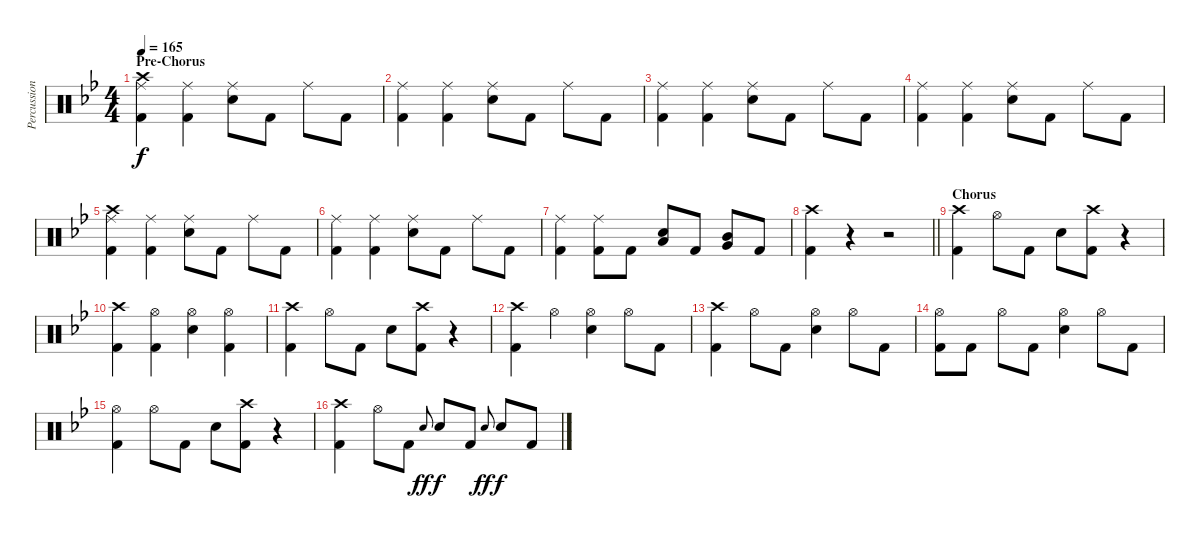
\track ("Percussion - Aaron" "Percussion") {instrument percussion}
\staff {score}
\articulation defaults
\ts (4 4)
\section ("" "Pre-Chorus")
\tempo 165
\clef neutral
\ks gminor
("Crash high (hit)" "Ride (middle)" "Kick (hit) 2").4{dy f} ("Ride (middle)" "Kick (hit) 2").4 ("Ride (middle)" "Electric Snare (hit)").8 "Kick (hit) 2".8 "Ride (middle)".8 "Kick (hit) 2".8 |
("Ride (middle)" "Kick (hit) 2").4 ("Ride (middle)" "Kick (hit) 2").4 ("Ride (middle)" "Electric Snare (hit)").8 "Kick (hit) 2".8 "Ride (middle)".8 "Kick (hit) 2".8 |
("Ride (middle)" "Kick (hit) 2").4 ("Ride (middle)" "Kick (hit) 2").4 ("Ride (middle)" "Electric Snare (hit)").8 "Kick (hit) 2".8 "Ride (middle)".8 "Kick (hit) 2".8 |
("Ride (middle)" "Kick (hit) 2").4 ("Ride (middle)" "Kick (hit) 2").4 ("Ride (middle)" "Electric Snare (hit)").8 "Kick (hit) 2".8 "Ride (middle)".8 "Kick (hit) 2".8 |
("Crash high (hit)" "Ride (middle)" "Kick (hit) 2").4 ("Ride (middle)" "Kick (hit) 2").4 ("Ride (middle)" "Electric Snare (hit)").8 "Kick (hit) 2".8 "Ride (middle)".8 "Kick (hit) 2".8 |
("Ride (middle)" "Kick (hit) 2").4 ("Ride (middle)" "Kick (hit) 2").4 ("Ride (middle)" "Electric Snare (hit)").8 "Kick (hit) 2".8 "Ride (middle)".8 "Kick (hit) 2".8 |
("Ride (middle)" "Kick (hit) 2").4 ("Ride (middle)" "Kick (hit) 2").8 "Kick (hit) 2".8 ("Low Tom (hit)" "Electric Snare (hit)").8 "Kick (hit) 2".8 ("Mid Tom (hit)" "Very Low Tom (hit)").8 "Kick (hit) 2".8 |
\barLineRight lightlight
("Crash high (hit)" "Kick (hit) 2").4 r.4 r.2 |
\section ("" "Chorus")
("Crash high (hit)" "Kick (hit) 2").4 "Hi-Hat (open)".8 "Kick (hit) 2".8 "Electric Snare (hit)".8 ("Crash high (hit)" "Kick (hit) 2").8 r.4 |
("Crash high (hit)" "Kick (hit) 2").4 ("Hi-Hat (open)" "Kick (hit) 2").4 ("Hi-Hat (open)" "Electric Snare (hit)").4 ("Hi-Hat (open)" "Kick (hit) 2").4 |
("Crash high (hit)" "Kick (hit) 2").4 "Hi-Hat (open)".8 "Kick (hit) 2".8 "Electric Snare (hit)".8 ("Crash high (hit)" "Kick (hit) 2").8 r.4 |
("Crash high (hit)" "Kick (hit) 2").4 "Hi-Hat (open)".4 ("Hi-Hat (open)" "Electric Snare (hit)").4 "Hi-Hat (open)".8 "Kick (hit) 2".8 |
("Crash high (hit)" "Kick (hit) 2").4 "Hi-Hat (open)".8 "Kick (hit) 2".8 ("Hi-Hat (open)" "Electric Snare (hit)").4 "Hi-Hat (open)".8 "Kick (hit) 2".8 |
("Hi-Hat (open)" "Kick (hit) 2").8 "Kick (hit) 2".8 "Hi-Hat (open)".8 "Kick (hit) 2".8 ("Hi-Hat (open)" "Electric Snare (hit)").4 "Hi-Hat (open)".8 "Kick (hit) 2".8 |
("Hi-Hat (open)" "Kick (hit) 2").4 "Hi-Hat (open)".8 "Kick (hit) 2".8 "Electric Snare (hit)".8 ("Crash high (hit)" "Kick (hit) 2").8 r.4 |
("Crash high (hit)" "Kick (hit) 2").4 "Hi-Hat (open)".8 "Kick (hit) 2".8 "Electric Snare (hit)".8{gr onbeat dy ff} "Electric Snare (hit)".8{dy f} "Kick (hit) 2".8 "Electric Snare (hit)".8{gr onbeat dy ff} "Electric Snare (hit)".8{dy f} "Kick (hit) 2".8
